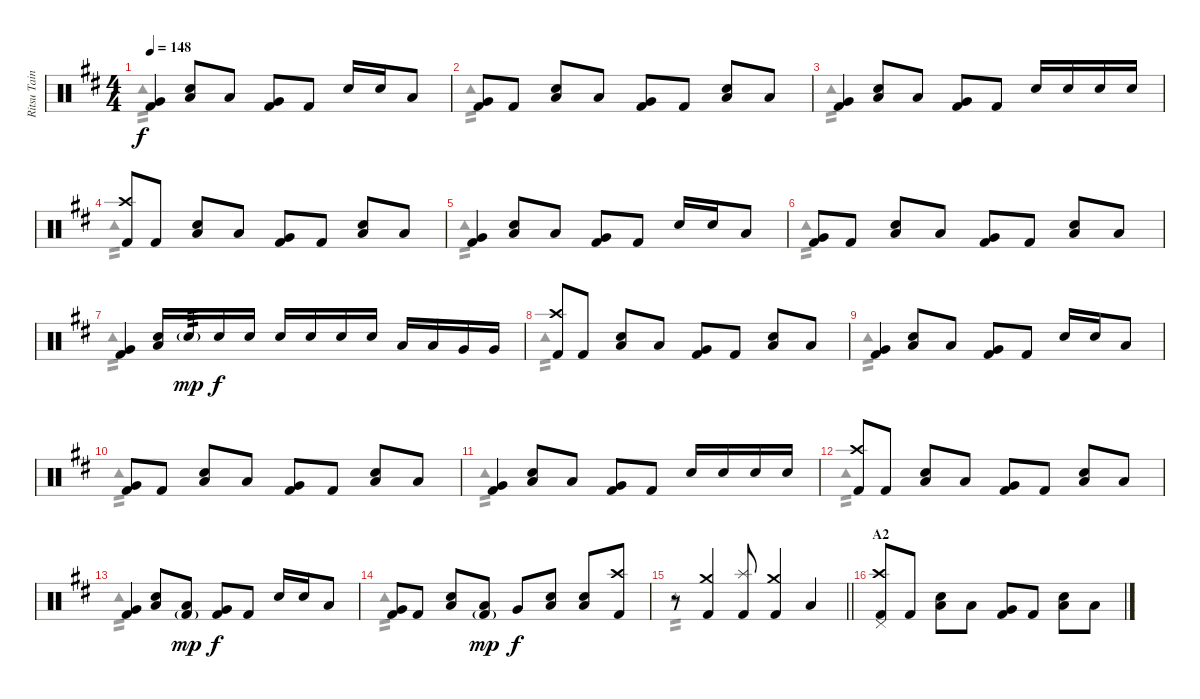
\track ("Ritsu Tainaka" "Ritsu Tain") {instrument percussion}
\staff {score}
\articulation defaults
\voice
\ts (4 4)
\tempo 148
\clef neutral
\ks d
("Very Low Tom (hit)" "Kick (hit) 2").4{dy f} ("Snare (hit) 2" "Low Floor Tom (hit)").8 "Low Tom (hit)".8 ("Very Low Tom (hit)" "Kick (hit) 2").8 "Kick (hit) 2".8 "Snare (hit) 2".16 "Snare (hit) 2".16 "Low Tom (hit)".8 |
("Very Low Tom (hit)" "Kick (hit) 2").8 "Kick (hit) 2".8 ("Snare (hit) 2" "Low Floor Tom (hit)").8 "Low Tom (hit)".8 ("Very Low Tom (hit)" "Kick (hit) 2").8 "Kick (hit) 2".8 ("Snare (hit) 2" "Low Floor Tom (hit)").8 "Low Tom (hit)".8 |
("Very Low Tom (hit)" "Kick (hit) 2").4 ("Snare (hit) 2" "Low Floor Tom (hit)").8 "Low Tom (hit)".8 ("Very Low Tom (hit)" "Kick (hit) 2").8 "Kick (hit) 2".8 "Snare (hit) 2".16 "Snare (hit) 2".16 "Snare (hit) 2".16 "Snare (hit) 2".16 |
("Crash high (hit)" "Kick (hit) 2").8 "Kick (hit) 2".8 ("Snare (hit) 2" "Low Floor Tom (hit)").8 "Low Tom (hit)".8 ("Very Low Tom (hit)" "Kick (hit) 2").8 "Kick (hit) 2".8 ("Snare (hit) 2" "Low Floor Tom (hit)").8 "Low Tom (hit)".8 |
("Very Low Tom (hit)" "Kick (hit) 2").4 ("Snare (hit) 2" "Low Floor Tom (hit)").8 "Low Tom (hit)".8 ("Very Low Tom (hit)" "Kick (hit) 2").8 "Kick (hit) 2".8 "Snare (hit) 2".16 "Snare (hit) 2".16 "Low Tom (hit)".8 |
("Very Low Tom (hit)" "Kick (hit) 2").8 "Kick (hit) 2".8 ("Snare (hit) 2" "Low Floor Tom (hit)").8 "Low Tom (hit)".8 ("Very Low Tom (hit)" "Kick (hit) 2").8 "Kick (hit) 2".8 ("Snare (hit) 2" "Low Floor Tom (hit)").8 "Low Tom (hit)".8 |
("Very Low Tom (hit)" "Kick (hit) 2").4 ("Snare (hit) 2" "Low Floor Tom (hit)").16 "Snare (hit) 2"{g}.16{tp 3 dy mp} "Snare (hit) 2".16{dy f} "Snare (hit) 2".16 "Snare (hit) 2".16 "Snare (hit) 2".16 "Snare (hit) 2".16 "Snare (hit) 2".16 "Low Tom (hit)".16 "Low Tom (hit)".16 "Very Low Tom (hit)".16 "Very Low Tom (hit)".16 |
("Crash high (hit)" "Kick (hit) 2").8 "Kick (hit) 2".8 ("Snare (hit) 2" "Low Floor Tom (hit)").8 "Low Tom (hit)".8 ("Very Low Tom (hit)" "Kick (hit) 2").8 "Kick (hit) 2".8 ("Snare (hit) 2" "Low Floor Tom (hit)").8 "Low Tom (hit)".8 |
("Very Low Tom (hit)" "Kick (hit) 2").4 ("Snare (hit) 2" "Low Floor Tom (hit)").8 "Low Tom (hit)".8 ("Very Low Tom (hit)" "Kick (hit) 2").8 "Kick (hit) 2".8 "Snare (hit) 2".16 "Snare (hit) 2".16 "Low Tom (hit)".8 |
("Very Low Tom (hit)" "Kick (hit) 2").8 "Kick (hit) 2".8 ("Snare (hit) 2" "Low Floor Tom (hit)").8 "Low Tom (hit)".8 ("Very Low Tom (hit)" "Kick (hit) 2").8 "Kick (hit) 2".8 ("Snare (hit) 2" "Low Floor Tom (hit)").8 "Low Tom (hit)".8 |
("Very Low Tom (hit)" "Kick (hit) 2").4 ("Snare (hit) 2" "Low Floor Tom (hit)").8 "Low Tom (hit)".8 ("Very Low Tom (hit)" "Kick (hit) 2").8 "Kick (hit) 2".8 "Snare (hit) 2".16 "Snare (hit) 2".16 "Snare (hit) 2".16 "Snare (hit) 2".16 |
("Crash high (hit)" "Kick (hit) 2").8 "Kick (hit) 2".8 ("Snare (hit) 2" "Low Floor Tom (hit)").8 "Low Tom (hit)".8 ("Very Low Tom (hit)" "Kick (hit) 2").8 "Kick (hit) 2".8 ("Snare (hit) 2" "Low Floor Tom (hit)").8 "Low Tom (hit)".8 |
("Very Low Tom (hit)" "Kick (hit) 2").4 ("Snare (hit) 2" "Low Floor Tom (hit)").8 ("Low Tom (hit)" "Kick (hit) 2"{g}).8{dy mp} ("Very Low Tom (hit)" "Kick (hit) 2").8{dy f} "Kick (hit) 2".8 "Snare (hit) 2".16 "Snare (hit) 2".16 "Low Tom (hit)".8 |
("Very Low Tom (hit)" "Kick (hit) 2").8 "Kick (hit) 2".8 ("Snare (hit) 2" "Low Floor Tom (hit)").8 ("Low Tom (hit)" "Kick (hit) 2"{g}).8{dy mp} "Very Low Tom (hit)".8{dy f} ("Snare (hit) 2" "Low Floor Tom (hit)").8 ("Snare (hit) 2" "Low Floor Tom (hit)").8 ("Crash high (hit)" "Kick (hit) 2").8 |
\barLineRight lightlight
r.8 ("Crash medium (hit)" "Kick (hit) 2").4 ("Splash (hit)" "Kick (hit) 2").8 ("Crash medium (hit)" "Kick (hit) 2").4 "Low Floor Tom (hit)".4 |
\section ("" "A2")
("Crash high (hit)" "Pedal Hi-Hat (hit)" "Kick (hit) 2").8 "Kick (hit) 2".8 ("Snare (hit) 2" "Low Floor Tom (hit)").8 "Low Tom (hit)".8 ("Very Low Tom (hit)" "Kick (hit) 2").8 "Kick (hit) 2".8 ("Snare (hit) 2" "Low Floor Tom (hit)").8 "Low Tom (hit)".8
\voice
\clef neutral
\ottava regular
\simile none
\ks d "Tambourine (hit)".1{tp 2 dy f}
|
"Tambourine (hit)".1{tp 2} |
"Tambourine (hit)".1{tp 2} |
"Tambourine (hit)".1{tp 2} |
"Tambourine (hit)".1{tp 2} |
"Tambourine (hit)".1{tp 2} |
"Tambourine (hit)".1{tp 2} |
"Tambourine (hit)".1{tp 2} |
"Tambourine (hit)".1{tp 2} |
"Tambourine (hit)".1{tp 2} |
"Tambourine (hit)".1{tp 2} |
"Tambourine (hit)".1{tp 2} |
"Tambourine (hit)".1{tp 2} |
"Tambourine (hit)".1{tp 2} |
\barLineRight lightlight "Tambourine (hit)".1{tp 2}
|
